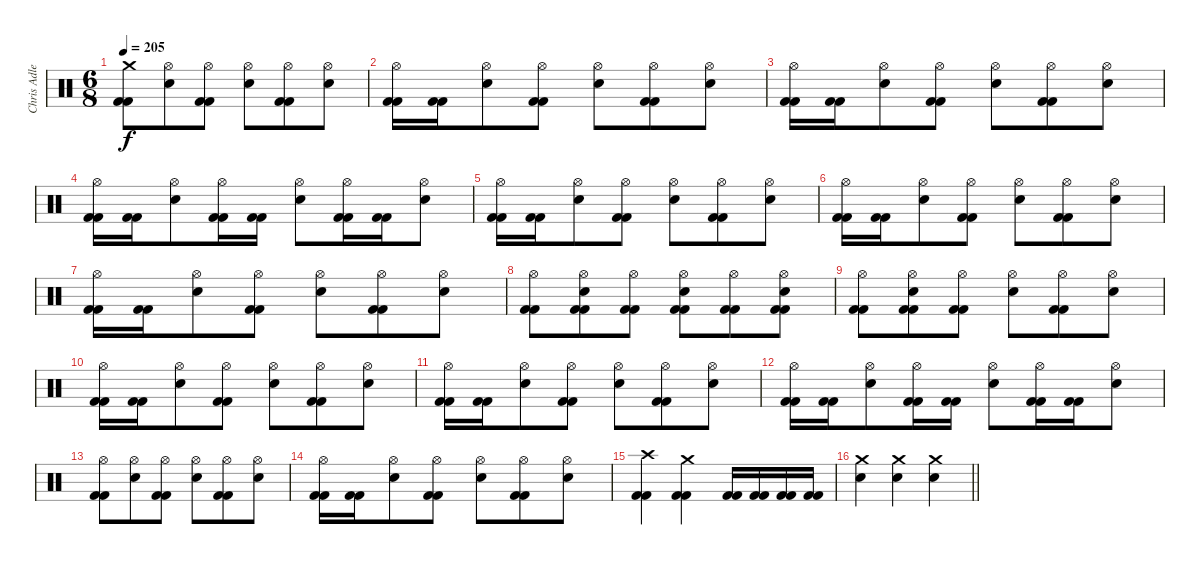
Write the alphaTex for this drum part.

\track ("Chris Adler" "Chris Adle") {instrument percussion}
\staff {score}
\articulation defaults
\ts (6 8)
\tempo 205
\clef neutral
\ks c
("Crash medium (hit)" "Kick (hit) 2" "Kick (hit) 2").8{dy f} ("Hi-Hat (open)" "Electric Snare (hit)").8 ("Hi-Hat (open)" "Kick (hit) 2" "Kick (hit) 2").8 ("Hi-Hat (open)" "Electric Snare (hit)").8 ("Hi-Hat (open)" "Kick (hit) 2" "Kick (hit) 2").8 ("Hi-Hat (open)" "Electric Snare (hit)").8 |
("Hi-Hat (open)" "Kick (hit) 2" "Kick (hit) 2").16 ("Kick (hit) 2" "Kick (hit) 2").16 ("Hi-Hat (open)" "Electric Snare (hit)").8 ("Hi-Hat (open)" "Kick (hit) 2" "Kick (hit) 2").8 ("Hi-Hat (open)" "Electric Snare (hit)").8 ("Hi-Hat (open)" "Kick (hit) 2" "Kick (hit) 2").8 ("Hi-Hat (open)" "Electric Snare (hit)").8 |
("Hi-Hat (open)" "Kick (hit) 2" "Kick (hit) 2").16 ("Kick (hit) 2" "Kick (hit) 2").16 ("Hi-Hat (open)" "Electric Snare (hit)").8 ("Hi-Hat (open)" "Kick (hit) 2" "Kick (hit) 2").8 ("Hi-Hat (open)" "Electric Snare (hit)").8 ("Hi-Hat (open)" "Kick (hit) 2" "Kick (hit) 2").8 ("Hi-Hat (open)" "Electric Snare (hit)").8 |
("Hi-Hat (open)" "Kick (hit) 2" "Kick (hit) 2").16 ("Kick (hit) 2" "Kick (hit) 2").16 ("Hi-Hat (open)" "Electric Snare (hit)").8 ("Hi-Hat (open)" "Kick (hit) 2" "Kick (hit) 2").16 ("Kick (hit) 2" "Kick (hit) 2").16 ("Hi-Hat (open)" "Electric Snare (hit)").8 ("Hi-Hat (open)" "Kick (hit) 2" "Kick (hit) 2").16 ("Kick (hit) 2" "Kick (hit) 2").16 ("Hi-Hat (open)" "Electric Snare (hit)").8 |
("Hi-Hat (open)" "Kick (hit) 2" "Kick (hit) 2").16 ("Kick (hit) 2" "Kick (hit) 2").16 ("Hi-Hat (open)" "Electric Snare (hit)").8 ("Hi-Hat (open)" "Kick (hit) 2" "Kick (hit) 2").8 ("Hi-Hat (open)" "Electric Snare (hit)").8 ("Hi-Hat (open)" "Kick (hit) 2" "Kick (hit) 2").8 ("Hi-Hat (open)" "Electric Snare (hit)").8 |
("Hi-Hat (open)" "Kick (hit) 2" "Kick (hit) 2").16 ("Kick (hit) 2" "Kick (hit) 2").16 ("Hi-Hat (open)" "Electric Snare (hit)").8 ("Hi-Hat (open)" "Kick (hit) 2" "Kick (hit) 2").8 ("Hi-Hat (open)" "Electric Snare (hit)").8 ("Hi-Hat (open)" "Kick (hit) 2" "Kick (hit) 2").8 ("Hi-Hat (open)" "Electric Snare (hit)").8 |
("Hi-Hat (open)" "Kick (hit) 2" "Kick (hit) 2").16 ("Kick (hit) 2" "Kick (hit) 2").16 ("Hi-Hat (open)" "Electric Snare (hit)").8 ("Hi-Hat (open)" "Kick (hit) 2" "Kick (hit) 2").8 ("Hi-Hat (open)" "Electric Snare (hit)").8 ("Hi-Hat (open)" "Kick (hit) 2" "Kick (hit) 2").8 ("Hi-Hat (open)" "Electric Snare (hit)").8 |
("Hi-Hat (open)" "Kick (hit) 2" "Kick (hit) 2").8 ("Hi-Hat (open)" "Electric Snare (hit)" "Kick (hit) 2" "Kick (hit) 2").8 ("Hi-Hat (open)" "Kick (hit) 2" "Kick (hit) 2").8 ("Hi-Hat (open)" "Electric Snare (hit)" "Kick (hit) 2" "Kick (hit) 2").8 ("Hi-Hat (open)" "Kick (hit) 2" "Kick (hit) 2").8 ("Hi-Hat (open)" "Electric Snare (hit)" "Kick (hit) 2" "Kick (hit) 2").8 |
("Hi-Hat (open)" "Kick (hit) 2" "Kick (hit) 2").8 ("Hi-Hat (open)" "Electric Snare (hit)" "Kick (hit) 2" "Kick (hit) 2").8 ("Hi-Hat (open)" "Kick (hit) 2" "Kick (hit) 2").8 ("Hi-Hat (open)" "Electric Snare (hit)").8 ("Hi-Hat (open)" "Kick (hit) 2" "Kick (hit) 2").8 ("Hi-Hat (open)" "Electric Snare (hit)").8 |
("Hi-Hat (open)" "Kick (hit) 2" "Kick (hit) 2").16 ("Kick (hit) 2" "Kick (hit) 2").16 ("Hi-Hat (open)" "Electric Snare (hit)").8 ("Hi-Hat (open)" "Kick (hit) 2" "Kick (hit) 2").8 ("Hi-Hat (open)" "Electric Snare (hit)").8 ("Hi-Hat (open)" "Kick (hit) 2" "Kick (hit) 2").8 ("Hi-Hat (open)" "Electric Snare (hit)").8 |
("Hi-Hat (open)" "Kick (hit) 2" "Kick (hit) 2").16 ("Kick (hit) 2" "Kick (hit) 2").16 ("Hi-Hat (open)" "Electric Snare (hit)").8 ("Hi-Hat (open)" "Kick (hit) 2" "Kick (hit) 2").8 ("Hi-Hat (open)" "Electric Snare (hit)").8 ("Hi-Hat (open)" "Kick (hit) 2" "Kick (hit) 2").8 ("Hi-Hat (open)" "Electric Snare (hit)").8 |
("Hi-Hat (open)" "Kick (hit) 2" "Kick (hit) 2").16 ("Kick (hit) 2" "Kick (hit) 2").16 ("Hi-Hat (open)" "Electric Snare (hit)").8 ("Hi-Hat (open)" "Kick (hit) 2" "Kick (hit) 2").16 ("Kick (hit) 2" "Kick (hit) 2").16 ("Hi-Hat (open)" "Electric Snare (hit)").8 ("Hi-Hat (open)" "Kick (hit) 2" "Kick (hit) 2").16 ("Kick (hit) 2" "Kick (hit) 2").16 ("Hi-Hat (open)" "Electric Snare (hit)").8 |
("Hi-Hat (open)" "Kick (hit) 2" "Kick (hit) 2").8 ("Hi-Hat (open)" "Electric Snare (hit)").8 ("Hi-Hat (open)" "Kick (hit) 2" "Kick (hit) 2").8 ("Hi-Hat (open)" "Electric Snare (hit)").8 ("Hi-Hat (open)" "Kick (hit) 2" "Kick (hit) 2").8 ("Hi-Hat (open)" "Electric Snare (hit)").8 |
("Hi-Hat (open)" "Kick (hit) 2" "Kick (hit) 2").16 ("Kick (hit) 2" "Kick (hit) 2").16 ("Hi-Hat (open)" "Electric Snare (hit)").8 ("Hi-Hat (open)" "Kick (hit) 2" "Kick (hit) 2").8 ("Hi-Hat (open)" "Electric Snare (hit)").8 ("Hi-Hat (open)" "Kick (hit) 2" "Kick (hit) 2").8 ("Hi-Hat (open)" "Electric Snare (hit)").8 |
("Crash high (hit)" "Kick (hit) 2" "Kick (hit) 2").4 ("Crash medium (hit)" "Kick (hit) 2" "Kick (hit) 2").4 ("Kick (hit) 2" "Kick (hit) 2").16 ("Kick (hit) 2" "Kick (hit) 2").16 ("Kick (hit) 2" "Kick (hit) 2").16 ("Kick (hit) 2" "Kick (hit) 2").16 |
\barLineRight lightlight
("Crash medium (hit)" "Electric Snare (hit)").4 ("Crash medium (hit)" "Electric Snare (hit)").4 ("Crash medium (hit)" "Electric Snare (hit)").4
